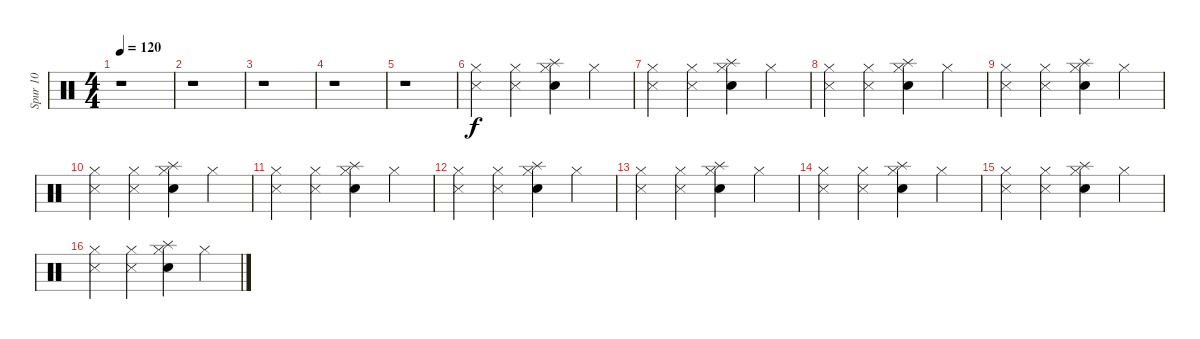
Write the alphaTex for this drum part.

\track ("Spur 10" "Spur 10") {instrument percussion}
\staff {score}
\articulation defaults
\ts (4 4)
\tempo 120
\clef neutral
\ks c
r.1{dy f} |
r.1 |
r.1 |
r.1 |
r.1 |
("Metronome (hit)" "Hi-Hat (closed)").4 ("Metronome (hit)" "Hi-Hat (closed)").4 ("Splash (hit)" "Electric Snare (hit)" "Hi-Hat (closed)").4 "Hi-Hat (closed)".4 |
("Metronome (hit)" "Hi-Hat (closed)").4 ("Metronome (hit)" "Hi-Hat (closed)").4 ("Splash (hit)" "Electric Snare (hit)" "Hi-Hat (closed)").4 "Hi-Hat (closed)".4 |
("Metronome (hit)" "Hi-Hat (closed)").4 ("Metronome (hit)" "Hi-Hat (closed)").4 ("Splash (hit)" "Electric Snare (hit)" "Hi-Hat (closed)").4 "Hi-Hat (closed)".4 |
("Metronome (hit)" "Hi-Hat (closed)").4 ("Metronome (hit)" "Hi-Hat (closed)").4 ("Splash (hit)" "Electric Snare (hit)" "Hi-Hat (closed)").4 "Hi-Hat (closed)".4 |
("Metronome (hit)" "Hi-Hat (closed)").4 ("Metronome (hit)" "Hi-Hat (closed)").4 ("Splash (hit)" "Electric Snare (hit)" "Hi-Hat (closed)").4 "Hi-Hat (closed)".4 |
("Metronome (hit)" "Hi-Hat (closed)").4 ("Metronome (hit)" "Hi-Hat (closed)").4 ("Splash (hit)" "Electric Snare (hit)" "Hi-Hat (closed)").4 "Hi-Hat (closed)".4 |
("Metronome (hit)" "Hi-Hat (closed)").4 ("Metronome (hit)" "Hi-Hat (closed)").4 ("Splash (hit)" "Electric Snare (hit)" "Hi-Hat (closed)").4 "Hi-Hat (closed)".4 |
("Metronome (hit)" "Hi-Hat (closed)").4 ("Metronome (hit)" "Hi-Hat (closed)").4 ("Splash (hit)" "Electric Snare (hit)" "Hi-Hat (closed)").4 "Hi-Hat (closed)".4 |
("Metronome (hit)" "Hi-Hat (closed)").4 ("Metronome (hit)" "Hi-Hat (closed)").4 ("Splash (hit)" "Electric Snare (hit)" "Hi-Hat (closed)").4 "Hi-Hat (closed)".4 |
("Metronome (hit)" "Hi-Hat (closed)").4 ("Metronome (hit)" "Hi-Hat (closed)").4 ("Splash (hit)" "Electric Snare (hit)" "Hi-Hat (closed)").4 "Hi-Hat (closed)".4 |
("Metronome (hit)" "Hi-Hat (closed)").4 ("Metronome (hit)" "Hi-Hat (closed)").4 ("Splash (hit)" "Electric Snare (hit)" "Hi-Hat (closed)").4 "Hi-Hat (closed)".4
